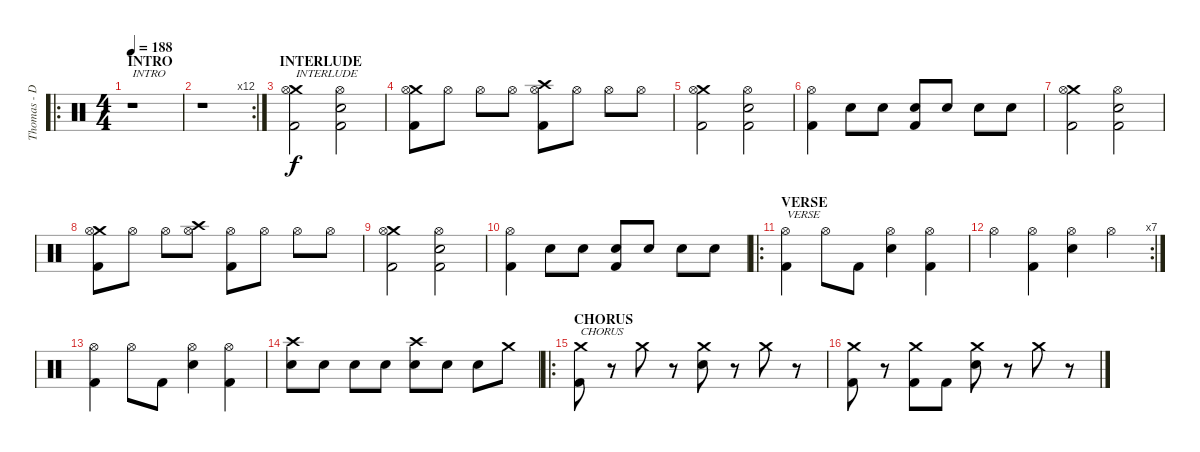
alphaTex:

\track ("Thomas - Drums" "Thomas - D") {instrument percussion}
\staff {score}
\articulation defaults
\ro
\ts (4 4)
\section ("" "INTRO")
\tempo 188
\clef neutral
\ks c
r.1{txt "INTRO" dy f} |
\rc 12
r.1 |
\section ("" "INTERLUDE")
("Crash medium (hit)" "Hi-Hat (open)" "Kick (hit) 2").2{txt "INTERLUDE"} ("Hi-Hat (open)" "Electric Snare (hit)" "Kick (hit) 2").2 |
("Crash medium (hit)" "Hi-Hat (open)" "Kick (hit) 2").8 "Hi-Hat (open)".8 "Hi-Hat (open)".8 "Hi-Hat (open)".8 ("Crash high (hit)" "Hi-Hat (open)" "Kick (hit) 2").8 "Hi-Hat (open)".8 "Hi-Hat (open)".8 "Hi-Hat (open)".8 |
("Crash medium (hit)" "Hi-Hat (open)" "Kick (hit) 2").2 ("Hi-Hat (open)" "Electric Snare (hit)" "Kick (hit) 2").2 |
("Hi-Hat (open)" "Kick (hit) 2").4 "Electric Snare (hit)".8 "Electric Snare (hit)".8 ("Electric Snare (hit)" "Kick (hit) 2").8 "Electric Snare (hit)".8 "Electric Snare (hit)".8 "Electric Snare (hit)".8 |
("Crash medium (hit)" "Hi-Hat (open)" "Kick (hit) 2").2 ("Hi-Hat (open)" "Electric Snare (hit)" "Kick (hit) 2").2 |
("Crash medium (hit)" "Hi-Hat (open)" "Kick (hit) 2").8 "Hi-Hat (open)".8 "Hi-Hat (open)".8 ("Crash high (hit)" "Hi-Hat (open)").8 ("Hi-Hat (open)" "Kick (hit) 2").8 "Hi-Hat (open)".8 "Hi-Hat (open)".8 "Hi-Hat (open)".8 |
("Crash medium (hit)" "Hi-Hat (open)" "Kick (hit) 2").2 ("Hi-Hat (open)" "Electric Snare (hit)" "Kick (hit) 2").2 |
("Hi-Hat (open)" "Kick (hit) 2").4 "Electric Snare (hit)".8 "Electric Snare (hit)".8 ("Electric Snare (hit)" "Kick (hit) 2").8 "Electric Snare (hit)".8 "Electric Snare (hit)".8 "Electric Snare (hit)".8 |
\ro
\section ("" "VERSE")
("Hi-Hat (open)" "Kick (hit) 2").4{txt "VERSE"} "Hi-Hat (open)".8 "Kick (hit) 2".8 ("Hi-Hat (open)" "Electric Snare (hit)").4 ("Hi-Hat (open)" "Kick (hit) 2").4 |
\rc 7 "Hi-Hat (open)".4
("Hi-Hat (open)" "Kick (hit) 2").4 ("Hi-Hat (open)" "Electric Snare (hit)").4 "Hi-Hat (open)".4 |
("Hi-Hat (open)" "Kick (hit) 2").4 "Hi-Hat (open)".8 "Kick (hit) 2".8 ("Hi-Hat (open)" "Electric Snare (hit)").4 ("Hi-Hat (open)" "Kick (hit) 2").4 |
("Crash high (hit)" "Electric Snare (hit)").8 "Electric Snare (hit)".8 "Electric Snare (hit)".8 "Electric Snare (hit)".8 ("Crash high (hit)" "Electric Snare (hit)").8 "Electric Snare (hit)".8 "Electric Snare (hit)".8 "Crash medium (hit)".8 |
\ro
\section ("" "CHORUS")
("Crash medium (hit)" "Kick (hit) 2").8{txt "CHORUS"} r.8 "Crash medium (hit)".8 r.8 ("Crash medium (hit)" "Electric Snare (hit)").8 r.8 "Crash medium (hit)".8 r.8 |
("Crash medium (hit)" "Kick (hit) 2").8 r.8 ("Crash medium (hit)" "Kick (hit) 2").8 "Kick (hit) 2".8 ("Crash medium (hit)" "Electric Snare (hit)").8 r.8 "Crash medium (hit)".8 r.8
